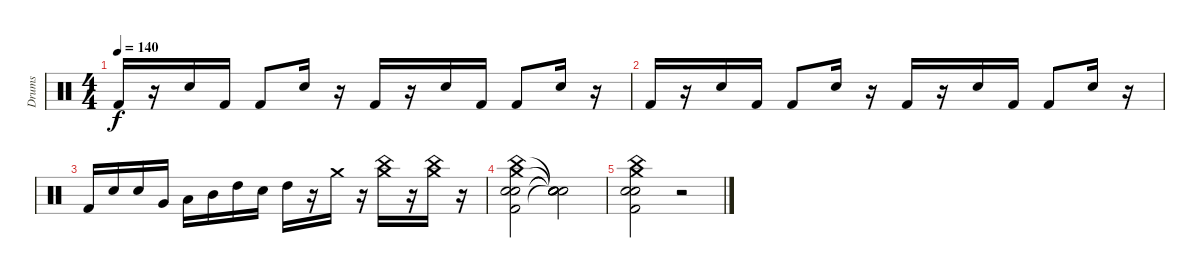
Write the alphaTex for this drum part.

\track ("Drums" "Drums") {instrument percussion}
\staff {score}
\articulation defaults
\ts (4 4)
\tempo 140
\clef neutral
\ks c "Kick (hit) 2".16{dy f}
r.16 "Snare (hit) 2".16 "Kick (hit) 2".16 "Kick (hit) 2".8 "Snare (hit) 2".16 r.16 "Kick (hit) 2".16 r.16 "Snare (hit) 2".16 "Kick (hit) 2".16 "Kick (hit) 2".8 "Snare (hit) 2".16 r.16 |
"Kick (hit) 2".16 r.16 "Snare (hit) 2".16 "Kick (hit) 2".16 "Kick (hit) 2".8 "Snare (hit) 2".16 r.16 "Kick (hit) 2".16 r.16 "Snare (hit) 2".16 "Kick (hit) 2".16 "Kick (hit) 2".8 "Snare (hit) 2".16 r.16 |
"Kick (hit) 2".16 "Snare (hit) 2".16 "Electric Snare (hit)".16 "Very Low Tom (hit)".16 "Low Tom (hit)".16 "Mid Tom (hit)".16 "High Tom (hit)".16 "Snare (hit) 2".16 "High Tom (hit)".16 r.16 "Crash medium (hit)".16 r.16 ("China (hit)" "Crash medium (hit)").16 r.16 ("China (hit)" "Crash medium (hit)").16 r.16 |
("China (hit)" "Kick (hit) 2" "Snare (hit) 2" "Crash medium (hit)" "Snare (hit) 2").2 ("Snare (hit)"{t} "Snare (hit)"{t} "Snare (hit)"{t} "Snare (hit)"{t} "Snare (hit)"{t}).2 |
("China (hit)" "Kick (hit) 2" "Snare (hit) 2" "Crash medium (hit)" "Snare (hit) 2").2 r.2
